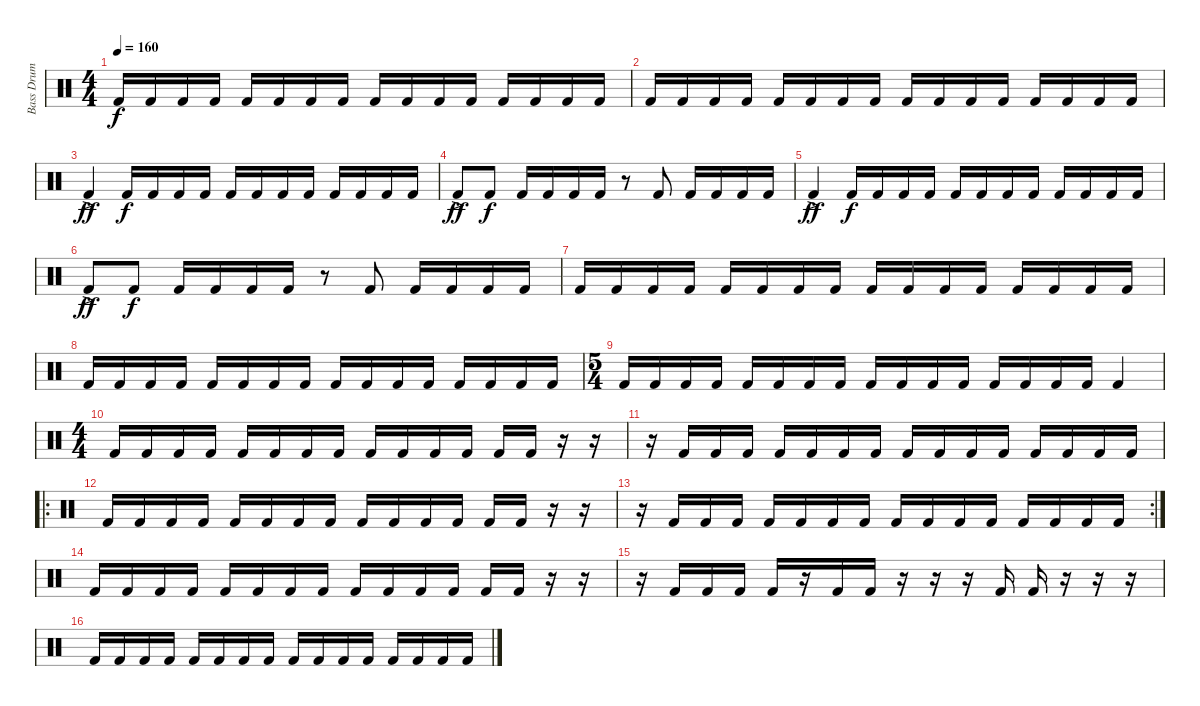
\track ("Bass Drum" "Bass Drum") {instrument percussion}
\staff {score}
\articulation defaults
\ts (4 4)
\tempo 160
\clef neutral
\ks c "Kick (hit) 2".16{dy f} "Kick (hit) 2".16 "Kick (hit) 2".16 "Kick (hit) 2".16 "Kick (hit) 2".16 "Kick (hit) 2".16 "Kick (hit) 2".16 "Kick (hit) 2".16 "Kick (hit) 2".16 "Kick (hit) 2".16 "Kick (hit) 2".16 "Kick (hit) 2".16 "Kick (hit) 2".16 "Kick (hit) 2".16 "Kick (hit) 2".16 "Kick (hit) 2".16
|
"Kick (hit) 2".16 "Kick (hit) 2".16 "Kick (hit) 2".16 "Kick (hit) 2".16 "Kick (hit) 2".16 "Kick (hit) 2".16 "Kick (hit) 2".16 "Kick (hit) 2".16 "Kick (hit) 2".16 "Kick (hit) 2".16 "Kick (hit) 2".16 "Kick (hit) 2".16 "Kick (hit) 2".16 "Kick (hit) 2".16 "Kick (hit) 2".16 "Kick (hit) 2".16 |
"Kick (hit) 2"{ac}.4{dy ff} "Kick (hit) 2".16{dy f} "Kick (hit) 2".16 "Kick (hit) 2".16 "Kick (hit) 2".16 "Kick (hit) 2".16 "Kick (hit) 2".16 "Kick (hit) 2".16 "Kick (hit) 2".16 "Kick (hit) 2".16 "Kick (hit) 2".16 "Kick (hit) 2".16 "Kick (hit) 2".16 |
"Kick (hit) 2"{ac}.8{dy ff} "Kick (hit) 2".8{dy f} "Kick (hit) 2".16 "Kick (hit) 2".16 "Kick (hit) 2".16 "Kick (hit) 2".16 r.8 "Kick (hit) 2".8 "Kick (hit) 2".16 "Kick (hit) 2".16 "Kick (hit) 2".16 "Kick (hit) 2".16 |
"Kick (hit) 2"{ac}.4{dy ff} "Kick (hit) 2".16{dy f} "Kick (hit) 2".16 "Kick (hit) 2".16 "Kick (hit) 2".16 "Kick (hit) 2".16 "Kick (hit) 2".16 "Kick (hit) 2".16 "Kick (hit) 2".16 "Kick (hit) 2".16 "Kick (hit) 2".16 "Kick (hit) 2".16 "Kick (hit) 2".16 |
"Kick (hit) 2"{ac}.8{dy ff} "Kick (hit) 2".8{dy f} "Kick (hit) 2".16 "Kick (hit) 2".16 "Kick (hit) 2".16 "Kick (hit) 2".16 r.8 "Kick (hit) 2".8 "Kick (hit) 2".16 "Kick (hit) 2".16 "Kick (hit) 2".16 "Kick (hit) 2".16 |
"Kick (hit) 2".16 "Kick (hit) 2".16 "Kick (hit) 2".16 "Kick (hit) 2".16 "Kick (hit) 2".16 "Kick (hit) 2".16 "Kick (hit) 2".16 "Kick (hit) 2".16 "Kick (hit) 2".16 "Kick (hit) 2".16 "Kick (hit) 2".16 "Kick (hit) 2".16 "Kick (hit) 2".16 "Kick (hit) 2".16 "Kick (hit) 2".16 "Kick (hit) 2".16 |
"Kick (hit) 2".16 "Kick (hit) 2".16 "Kick (hit) 2".16 "Kick (hit) 2".16 "Kick (hit) 2".16 "Kick (hit) 2".16 "Kick (hit) 2".16 "Kick (hit) 2".16 "Kick (hit) 2".16 "Kick (hit) 2".16 "Kick (hit) 2".16 "Kick (hit) 2".16 "Kick (hit) 2".16 "Kick (hit) 2".16 "Kick (hit) 2".16 "Kick (hit) 2".16 |
\ts (5 4)
"Kick (hit) 2".16 "Kick (hit) 2".16 "Kick (hit) 2".16 "Kick (hit) 2".16 "Kick (hit) 2".16 "Kick (hit) 2".16 "Kick (hit) 2".16 "Kick (hit) 2".16 "Kick (hit) 2".16 "Kick (hit) 2".16 "Kick (hit) 2".16 "Kick (hit) 2".16 "Kick (hit) 2".16 "Kick (hit) 2".16 "Kick (hit) 2".16 "Kick (hit) 2".16 "Kick (hit) 2".4 |
\ts (4 4)
"Kick (hit) 2".16 "Kick (hit) 2".16 "Kick (hit) 2".16 "Kick (hit) 2".16 "Kick (hit) 2".16 "Kick (hit) 2".16 "Kick (hit) 2".16 "Kick (hit) 2".16 "Kick (hit) 2".16 "Kick (hit) 2".16 "Kick (hit) 2".16 "Kick (hit) 2".16 "Kick (hit) 2".16 "Kick (hit) 2".16 r.16 r.16 |
r.16 "Kick (hit) 2".16 "Kick (hit) 2".16 "Kick (hit) 2".16 "Kick (hit) 2".16 "Kick (hit) 2".16 "Kick (hit) 2".16 "Kick (hit) 2".16 "Kick (hit) 2".16 "Kick (hit) 2".16 "Kick (hit) 2".16 "Kick (hit) 2".16 "Kick (hit) 2".16 "Kick (hit) 2".16 "Kick (hit) 2".16 "Kick (hit) 2".16 |
\ro "Kick (hit) 2".16 "Kick (hit) 2".16 "Kick (hit) 2".16 "Kick (hit) 2".16 "Kick (hit) 2".16 "Kick (hit) 2".16 "Kick (hit) 2".16 "Kick (hit) 2".16 "Kick (hit) 2".16 "Kick (hit) 2".16 "Kick (hit) 2".16 "Kick (hit) 2".16 "Kick (hit) 2".16 "Kick (hit) 2".16
r.16 r.16 |
\rc 2
r.16 "Kick (hit) 2".16 "Kick (hit) 2".16 "Kick (hit) 2".16 "Kick (hit) 2".16 "Kick (hit) 2".16 "Kick (hit) 2".16 "Kick (hit) 2".16 "Kick (hit) 2".16 "Kick (hit) 2".16 "Kick (hit) 2".16 "Kick (hit) 2".16 "Kick (hit) 2".16 "Kick (hit) 2".16 "Kick (hit) 2".16 "Kick (hit) 2".16 |
"Kick (hit) 2".16 "Kick (hit) 2".16 "Kick (hit) 2".16 "Kick (hit) 2".16 "Kick (hit) 2".16 "Kick (hit) 2".16 "Kick (hit) 2".16 "Kick (hit) 2".16 "Kick (hit) 2".16 "Kick (hit) 2".16 "Kick (hit) 2".16 "Kick (hit) 2".16 "Kick (hit) 2".16 "Kick (hit) 2".16 r.16 r.16 |
r.16 "Kick (hit) 2".16 "Kick (hit) 2".16 "Kick (hit) 2".16 "Kick (hit) 2".16 r.16 "Kick (hit) 2".16 "Kick (hit) 2".16 r.16 r.16 r.16 "Kick (hit) 2".16 "Kick (hit) 2".16 r.16 r.16 r.16 |
"Kick (hit) 2".16 "Kick (hit) 2".16 "Kick (hit) 2".16 "Kick (hit) 2".16 "Kick (hit) 2".16 "Kick (hit) 2".16 "Kick (hit) 2".16 "Kick (hit) 2".16 "Kick (hit) 2".16 "Kick (hit) 2".16 "Kick (hit) 2".16 "Kick (hit) 2".16 "Kick (hit) 2".16 "Kick (hit) 2".16 "Kick (hit) 2".16 "Kick (hit) 2".16
